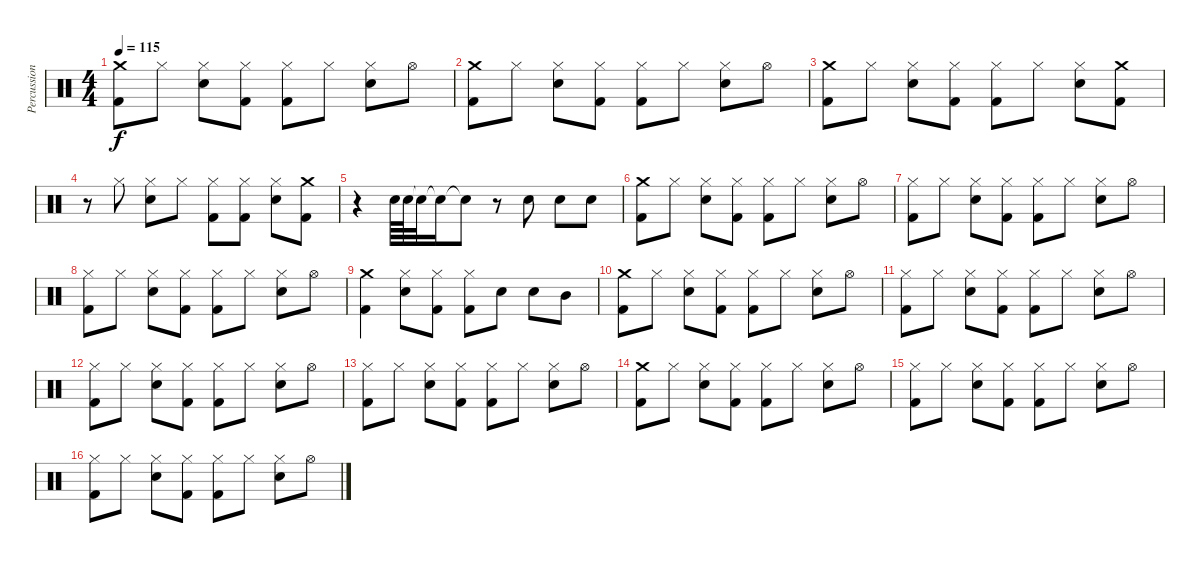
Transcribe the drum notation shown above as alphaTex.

\track ("Percussion" "Percussion") {instrument percussion}
\staff {score}
\articulation defaults
\ts (4 4)
\tempo 115
\clef neutral
\ks c
("Crash medium (hit)" "Kick (hit) 2").8{dy f} "Hi-Hat (closed)".8 ("Hi-Hat (closed)" "Electric Snare (hit)").8 ("Hi-Hat (closed)" "Kick (hit) 2").8 ("Hi-Hat (closed)" "Kick (hit) 2").8 "Hi-Hat (closed)".8 ("Hi-Hat (closed)" "Electric Snare (hit)").8 "Hi-Hat (open)".8 |
("Crash medium (hit)" "Kick (hit) 2").8 "Hi-Hat (closed)".8 ("Hi-Hat (closed)" "Electric Snare (hit)").8 ("Hi-Hat (closed)" "Kick (hit) 2").8 ("Hi-Hat (closed)" "Kick (hit) 2").8 "Hi-Hat (closed)".8 ("Hi-Hat (closed)" "Electric Snare (hit)").8 "Hi-Hat (open)".8 |
("Crash medium (hit)" "Kick (hit) 2").8 "Hi-Hat (closed)".8 ("Hi-Hat (closed)" "Electric Snare (hit)").8 ("Hi-Hat (closed)" "Kick (hit) 2").8 ("Hi-Hat (closed)" "Kick (hit) 2").8 "Hi-Hat (closed)".8 ("Hi-Hat (closed)" "Electric Snare (hit)").8 ("Crash medium (hit)" "Kick (hit) 2").8 |
r.8 "Hi-Hat (closed)".8 ("Hi-Hat (closed)" "Electric Snare (hit)").8 "Hi-Hat (closed)".8 ("Hi-Hat (closed)" "Kick (hit) 2").8 ("Hi-Hat (closed)" "Kick (hit) 2").8 ("Hi-Hat (closed)" "Electric Snare (hit)").8 ("Crash medium (hit)" "Kick (hit) 2").8 |
r.4 "Electric Snare (hit)".64 "Electric Snare (hit)".64 "Snare (hit)"{t}.32 "Snare (hit)"{t}.16 "Snare (hit)"{t}.8 r.8 "Electric Snare (hit)".8 "Electric Snare (hit)".8 "Electric Snare (hit)".8 |
("Crash medium (hit)" "Kick (hit) 2").8 "Hi-Hat (closed)".8 ("Hi-Hat (closed)" "Electric Snare (hit)").8 ("Hi-Hat (closed)" "Kick (hit) 2").8 ("Hi-Hat (closed)" "Kick (hit) 2").8 "Hi-Hat (closed)".8 ("Hi-Hat (closed)" "Electric Snare (hit)").8 "Hi-Hat (open)".8 |
("Hi-Hat (closed)" "Kick (hit) 2").8 "Hi-Hat (closed)".8 ("Hi-Hat (closed)" "Electric Snare (hit)").8 ("Hi-Hat (closed)" "Kick (hit) 2").8 ("Hi-Hat (closed)" "Kick (hit) 2").8 "Hi-Hat (closed)".8 ("Hi-Hat (closed)" "Electric Snare (hit)").8 "Hi-Hat (open)".8 |
("Hi-Hat (closed)" "Kick (hit) 2").8 "Hi-Hat (closed)".8 ("Hi-Hat (closed)" "Electric Snare (hit)").8 ("Hi-Hat (closed)" "Kick (hit) 2").8 ("Hi-Hat (closed)" "Kick (hit) 2").8 "Hi-Hat (closed)".8 ("Hi-Hat (closed)" "Electric Snare (hit)").8 "Hi-Hat (open)".8 |
("Crash medium (hit)" "Kick (hit) 2").4 ("Hi-Hat (closed)" "Electric Snare (hit)").8 ("Hi-Hat (closed)" "Kick (hit) 2").8 ("Hi-Hat (closed)" "Kick (hit) 2").8 "Electric Snare (hit)".8 "Electric Snare (hit)".8 "Mid Tom (hit)".8 |
("Crash medium (hit)" "Kick (hit) 2").8 "Hi-Hat (closed)".8 ("Hi-Hat (closed)" "Electric Snare (hit)").8 ("Hi-Hat (closed)" "Kick (hit) 2").8 ("Hi-Hat (closed)" "Kick (hit) 2").8 "Hi-Hat (closed)".8 ("Hi-Hat (closed)" "Electric Snare (hit)").8 "Hi-Hat (open)".8 |
("Hi-Hat (closed)" "Kick (hit) 2").8 "Hi-Hat (closed)".8 ("Hi-Hat (closed)" "Electric Snare (hit)").8 ("Hi-Hat (closed)" "Kick (hit) 2").8 ("Hi-Hat (closed)" "Kick (hit) 2").8 "Hi-Hat (closed)".8 ("Hi-Hat (closed)" "Electric Snare (hit)").8 "Hi-Hat (open)".8 |
("Hi-Hat (closed)" "Kick (hit) 2").8 "Hi-Hat (closed)".8 ("Hi-Hat (closed)" "Electric Snare (hit)").8 ("Hi-Hat (closed)" "Kick (hit) 2").8 ("Hi-Hat (closed)" "Kick (hit) 2").8 "Hi-Hat (closed)".8 ("Hi-Hat (closed)" "Electric Snare (hit)").8 "Hi-Hat (open)".8 |
("Hi-Hat (closed)" "Kick (hit) 2").8 "Hi-Hat (closed)".8 ("Hi-Hat (closed)" "Electric Snare (hit)").8 ("Hi-Hat (closed)" "Kick (hit) 2").8 ("Hi-Hat (closed)" "Kick (hit) 2").8 "Hi-Hat (closed)".8 ("Hi-Hat (closed)" "Electric Snare (hit)").8 "Hi-Hat (open)".8 |
("Crash medium (hit)" "Kick (hit) 2").8 "Hi-Hat (closed)".8 ("Hi-Hat (closed)" "Electric Snare (hit)").8 ("Hi-Hat (closed)" "Kick (hit) 2").8 ("Hi-Hat (closed)" "Kick (hit) 2").8 "Hi-Hat (closed)".8 ("Hi-Hat (closed)" "Electric Snare (hit)").8 "Hi-Hat (open)".8 |
("Hi-Hat (closed)" "Kick (hit) 2").8 "Hi-Hat (closed)".8 ("Hi-Hat (closed)" "Electric Snare (hit)").8 ("Hi-Hat (closed)" "Kick (hit) 2").8 ("Hi-Hat (closed)" "Kick (hit) 2").8 "Hi-Hat (closed)".8 ("Hi-Hat (closed)" "Electric Snare (hit)").8 "Hi-Hat (open)".8 |
("Hi-Hat (closed)" "Kick (hit) 2").8 "Hi-Hat (closed)".8 ("Hi-Hat (closed)" "Electric Snare (hit)").8 ("Hi-Hat (closed)" "Kick (hit) 2").8 ("Hi-Hat (closed)" "Kick (hit) 2").8 "Hi-Hat (closed)".8 ("Hi-Hat (closed)" "Electric Snare (hit)").8 "Hi-Hat (open)".8
